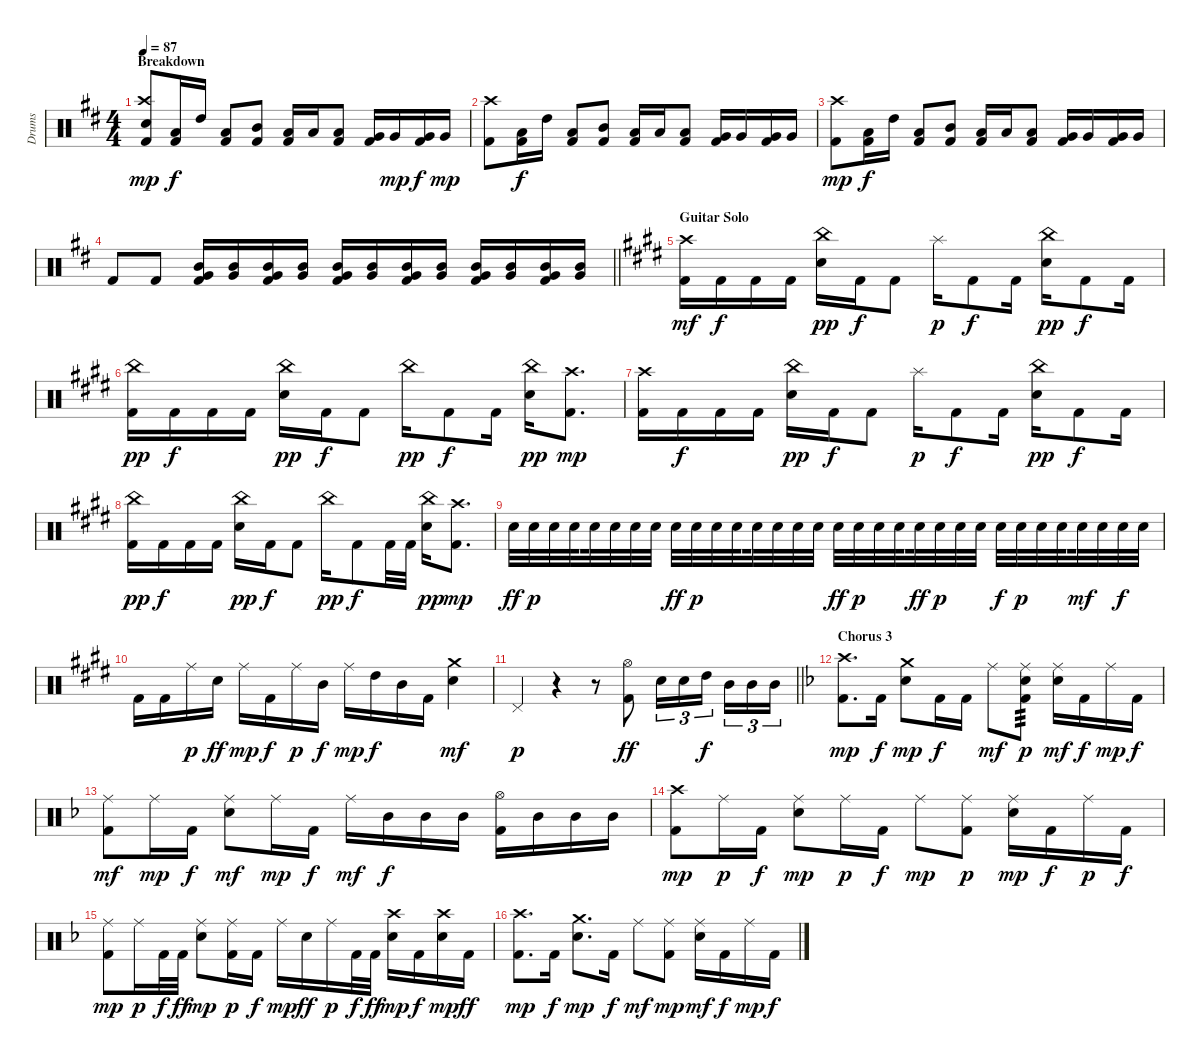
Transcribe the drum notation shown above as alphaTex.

\track ("Drums" "Drums") {instrument percussion}
\staff {score}
\articulation defaults
\ts (4 4)
\section ("" "Breakdown")
\tempo 87
\clef neutral
\ks bminor
("Kick (hit) 2" "Crash high (hit)" "Electric Snare (hit)").8{dy mp} ("Kick (hit) 2" "Low Floor Tom (hit)").16{dy f} "High Tom (hit)".16 ("Kick (hit) 2" "Low Floor Tom (hit)").8 ("Mid Tom (hit)" "Kick (hit) 2").8 ("Kick (hit) 2" "Low Floor Tom (hit)").16 "Low Tom (hit)".16 ("Kick (hit) 2" "Low Floor Tom (hit)").8 ("Very Low Tom (hit)" "Kick (hit) 2").16 "Very Low Tom (hit)".16{dy mp} ("Very Low Tom (hit)" "Kick (hit) 2").16{dy f} "Very Low Tom (hit)".16{dy mp} |
("Kick (hit) 2" "Crash high (hit)").8 ("Kick (hit) 2" "Low Floor Tom (hit)").16{dy f} "High Tom (hit)".16 ("Kick (hit) 2" "Low Floor Tom (hit)").8 ("Mid Tom (hit)" "Kick (hit) 2").8 ("Kick (hit) 2" "Low Floor Tom (hit)").16 "Low Tom (hit)".16 ("Kick (hit) 2" "Low Floor Tom (hit)").8 ("Very Low Tom (hit)" "Kick (hit) 2").16 "Very Low Tom (hit)".16 ("Very Low Tom (hit)" "Kick (hit) 2").16 "Very Low Tom (hit)".16 |
("Kick (hit) 2" "Crash high (hit)").8{dy mp} ("Kick (hit) 2" "Low Floor Tom (hit)").16{dy f} "High Tom (hit)".16 ("Kick (hit) 2" "Low Floor Tom (hit)").8 ("Mid Tom (hit)" "Kick (hit) 2").8 ("Kick (hit) 2" "Low Floor Tom (hit)").16 "Low Tom (hit)".16 ("Kick (hit) 2" "Low Floor Tom (hit)").8 ("Very Low Tom (hit)" "Kick (hit) 2").16 "Very Low Tom (hit)".16 ("Very Low Tom (hit)" "Kick (hit) 2").16 "Very Low Tom (hit)".16 |
\barLineRight lightlight "Kick (hit) 2".8 "Kick (hit) 2".8
("Mid Tom (hit)" "Very Low Tom (hit)" "Kick (hit) 2").16 ("Very Low Tom (hit)" "Mid Tom (hit)").16 ("Very Low Tom (hit)" "Mid Tom (hit)" "Kick (hit) 2").16 ("Very Low Tom (hit)" "Mid Tom (hit)").16 ("Very Low Tom (hit)" "Mid Tom (hit)" "Kick (hit) 2").16 ("Very Low Tom (hit)" "Mid Tom (hit)").16 ("Very Low Tom (hit)" "Mid Tom (hit)" "Kick (hit) 2").16 ("Very Low Tom (hit)" "Mid Tom (hit)").16 ("Very Low Tom (hit)" "Mid Tom (hit)" "Kick (hit) 2").16 ("Very Low Tom (hit)" "Mid Tom (hit)").16 ("Very Low Tom (hit)" "Mid Tom (hit)" "Kick (hit) 2").16 ("Very Low Tom (hit)" "Mid Tom (hit)").16 |
\section ("" "Guitar Solo")
\ks c#minor
("Crash high (hit)" "Kick (hit) 2").16{dy mf} "Kick (hit) 2".16{dy f} "Kick (hit) 2".16 "Kick (hit) 2".16 ("Electric Snare (hit)" "China (hit)").16{dy pp} "Kick (hit) 2".16{dy f} "Kick (hit) 2".8 "Splash (hit)".16{dy p} "Kick (hit) 2".8{dy f} "Kick (hit) 2".16 ("Electric Snare (hit)" "China (hit)").16{dy pp} "Kick (hit) 2".8{dy f} "Kick (hit) 2".16 |
("China (hit)" "Kick (hit) 2").16{dy pp} "Kick (hit) 2".16{dy f} "Kick (hit) 2".16 "Kick (hit) 2".16 ("Electric Snare (hit)" "China (hit)").16{dy pp} "Kick (hit) 2".16{dy f} "Kick (hit) 2".8 "China (hit)".16{dy pp} "Kick (hit) 2".8{dy f} "Kick (hit) 2".16 ("Electric Snare (hit)" "China (hit)").16{dy pp} ("Kick (hit) 2" "Crash high (hit)").8{d dy mp} |
("Crash high (hit)" "Kick (hit) 2").16 "Kick (hit) 2".16{dy f} "Kick (hit) 2".16 "Kick (hit) 2".16 ("Electric Snare (hit)" "China (hit)").16{dy pp} "Kick (hit) 2".16{dy f} "Kick (hit) 2".8 "Splash (hit)".16{dy p} "Kick (hit) 2".8{dy f} "Kick (hit) 2".16 ("Electric Snare (hit)" "China (hit)").16{dy pp} "Kick (hit) 2".8{dy f} "Kick (hit) 2".16 |
("China (hit)" "Kick (hit) 2").16{dy pp} "Kick (hit) 2".16{dy f} "Kick (hit) 2".16 "Kick (hit) 2".16 ("Electric Snare (hit)" "China (hit)").16{dy pp} "Kick (hit) 2".16{dy f} "Kick (hit) 2".8 "China (hit)".16{dy pp} "Kick (hit) 2".8{dy f} "Kick (hit) 2".32 "Kick (hit) 2".32 ("Electric Snare (hit)" "China (hit)").16{dy pp} ("Kick (hit) 2" "Crash high (hit)").8{d dy mp} |
"Electric Snare (hit)".32{dy ff} "Electric Snare (hit)".32{dy p} "Electric Snare (hit)".32 "Electric Snare (hit)".32{beam splitsecondary} "Electric Snare (hit)".32 "Electric Snare (hit)".32 "Electric Snare (hit)".32 "Electric Snare (hit)".32 "Electric Snare (hit)".32{dy ff} "Electric Snare (hit)".32{dy p} "Electric Snare (hit)".32 "Electric Snare (hit)".32{beam splitsecondary} "Electric Snare (hit)".32 "Electric Snare (hit)".32 "Electric Snare (hit)".32 "Electric Snare (hit)".32 "Electric Snare (hit)".32{dy ff} "Electric Snare (hit)".32{dy p} "Electric Snare (hit)".32 "Electric Snare (hit)".32{beam splitsecondary} "Electric Snare (hit)".32{dy ff} "Electric Snare (hit)".32{dy p} "Electric Snare (hit)".32 "Electric Snare (hit)".32 "Electric Snare (hit)".32{dy f} "Electric Snare (hit)".32{dy p} "Electric Snare (hit)".32 "Electric Snare (hit)".32{beam splitsecondary} "Electric Snare (hit)".32{dy mf} "Electric Snare (hit)".32 "Electric Snare (hit)".32{dy f} "Electric Snare (hit)".32 |
"Kick (hit) 2".16 "Kick (hit) 2".16 "Ride (middle)".16{dy p} "Electric Snare (hit)".16{dy ff} "Ride (middle)".16{dy mp} "Kick (hit) 2".16{dy f} "Ride (middle)".16{dy p} "Mid Tom (hit)".16{dy f} "Ride (middle)".16{dy mp} "High Tom (hit)".16{dy f} "Mid Tom (hit)".16 "Kick (hit) 2".16 ("Electric Snare (hit)" "Crash medium (hit)").4{dy mf} |
\barLineRight lightlight "Pedal Hi-Hat (hit)".4{dy p}
r.4 r.8 ("Kick (hit) 2" "Hi-Hat (open)").8{dy ff} "Electric Snare (hit)".16{tu (3 2)} "Electric Snare (hit)".16{tu (3 2)} "High Tom (hit)".16{tu (3 2) dy f beam splitsecondary} "Mid Tom (hit)".16{tu (3 2)} "Mid Tom (hit)".16{tu (3 2)} "Mid Tom (hit)".16{tu (3 2)} |
\section ("" "Chorus 3")
\ks dminor
("Crash high (hit)" "Kick (hit) 2").8{d dy mp} "Kick (hit) 2".16{dy f} ("Crash medium (hit)" "Electric Snare (hit)").8{dy mp} "Kick (hit) 2".16{dy f} "Kick (hit) 2".16 "Ride (middle)".8{dy mf} ("Electric Snare (hit)" "Kick (hit) 2" "Ride (middle)").8{tp 3 dy p} ("Ride (middle)" "Electric Snare (hit)").16{dy mf} "Kick (hit) 2".16{dy f} "Ride (middle)".16{dy mp} "Kick (hit) 2".16{dy f} |
("Ride (middle)" "Kick (hit) 2").8{dy mf} "Ride (middle)".16{dy mp} "Kick (hit) 2".16{dy f} ("Electric Snare (hit)" "Ride (middle)").8{dy mf} "Ride (middle)".16{dy mp} "Kick (hit) 2".16{dy f} "Ride (middle)".16{dy mf} "Mid Tom (hit)".16{dy f} "Mid Tom (hit)".16 "Mid Tom (hit)".16 ("Hi-Hat (open)" "Kick (hit) 2").16 "Mid Tom (hit)".16 "Mid Tom (hit)".16 "Mid Tom (hit)".16 |
("Crash high (hit)" "Kick (hit) 2").8{dy mp} "Ride (middle)".16{dy p} "Kick (hit) 2".16{dy f} ("Electric Snare (hit)" "Ride (middle)").8{dy mp} "Ride (middle)".16{dy p} "Kick (hit) 2".16{dy f} "Ride (middle)".8{dy mp} ("Ride (middle)" "Kick (hit) 2").8{dy p} ("Electric Snare (hit)" "Ride (middle)").16{dy mp} "Kick (hit) 2".16{dy f} "Ride (middle)".16{dy p} "Kick (hit) 2".16{dy f} |
("Ride (middle)" "Kick (hit) 2").8{dy mp} "Ride (middle)".16{dy p} "Kick (hit) 2".32{dy f} "Kick (hit) 2".32{dy ff} ("Electric Snare (hit)" "Ride (middle)").8{dy mp} ("Kick (hit) 2" "Ride (middle)").16{dy p} "Kick (hit) 2".16{dy f} "Ride (middle)".16{dy mp} "Electric Snare (hit)".16{dy ff} "Ride (middle)".16{dy p} "Kick (hit) 2".32{dy f} "Kick (hit) 2".32{dy ff} ("Electric Snare (hit)" "Crash high (hit)").16{dy mp} "Kick (hit) 2".16{dy f} ("Electric Snare (hit)" "Crash high (hit)").16{dy mp} "Kick (hit) 2".16{dy ff} |
("Crash high (hit)" "Kick (hit) 2").8{d dy mp} "Kick (hit) 2".16{dy f} ("Crash medium (hit)" "Electric Snare (hit)").8{d dy mp} "Kick (hit) 2".16{dy f} "Ride (middle)".8{dy mf} ("Ride (middle)" "Kick (hit) 2").8{dy mp} ("Ride (middle)" "Electric Snare (hit)").16{dy mf} "Kick (hit) 2".16{dy f} "Ride (middle)".16{dy mp} "Kick (hit) 2".16{dy f}
